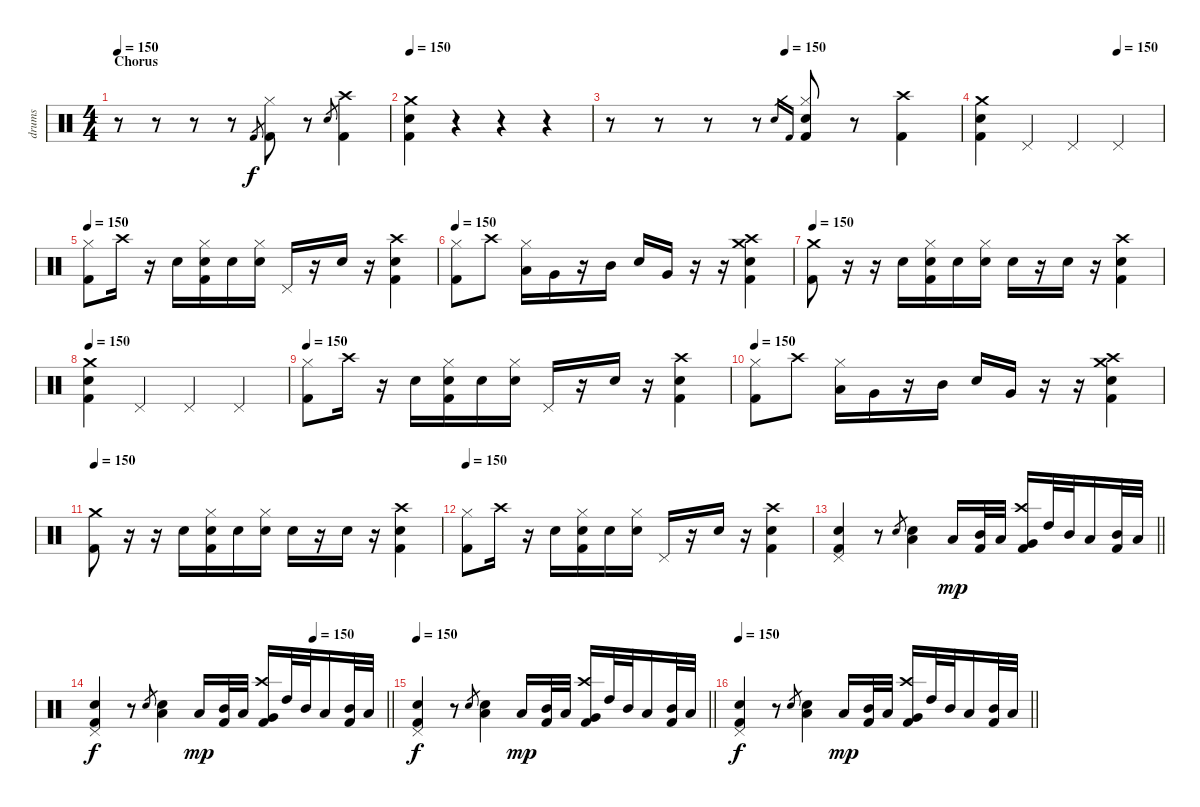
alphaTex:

\track ("drums" "drums") {instrument percussion}
\staff {score}
\articulation defaults
\ts (4 4)
\section ("" "Chorus")
\tempo 150
\clef neutral
\ks c
r.8{dy mp} r.8 r.8 r.8 "Kick (hit) 2".8{gr dy f} ("Hi-Hat (closed)" "Kick (hit) 2").8 r.8 "Snare (hit) 2".8{gr} ("Crash high (hit)" "Kick (hit) 2").4 |
\tempo 150
("Crash medium (hit)" "Snare (hit) 2" "Kick (hit) 2").4 r.4 r.4 r.4 |
\tempo (150 0.5)
r.8 r.8 r.8 r.8 "Snare (hit) 2".16{gr} "Kick (hit) 2".16{gr} ("Hi-Hat (closed)" "Snare (hit) 2" "Kick (hit) 2").8 r.8 ("Crash high (hit)" "Kick (hit) 2").4 |
\tempo (150 0.75)
("Crash medium (hit)" "Snare (hit) 2" "Kick (hit) 2").4 "Pedal Hi-Hat (hit)".4 "Pedal Hi-Hat (hit)".4 "Pedal Hi-Hat (hit)".4 |
\tempo 150
("Hi-Hat (closed)" "Kick (hit) 2").8 "Crash high (hit)".16 r.16 "Snare (hit) 2".16 ("Hi-Hat (closed)" "Snare (hit) 2" "Kick (hit) 2").16 "Snare (hit) 2".16 ("Hi-Hat (closed)" "Snare (hit) 2").16 "Pedal Hi-Hat (hit)".16 r.16 "Snare (hit) 2".16 r.16 ("Crash high (hit)" "Snare (hit) 2" "Kick (hit) 2").4 |
\tempo 150
("Hi-Hat (closed)" "Kick (hit) 2").8 "Crash high (hit)".8 ("Hi-Hat (closed)" "Low Floor Tom (hit)").16 "Very Low Tom (hit)".16 r.16 "Mid Tom (hit)".16 "Snare (hit) 2".16 "Very Low Tom (hit)".16 r.16 r.16 ("Crash high (hit)" "Snare (hit) 2" "Crash medium (hit)" "Kick (hit) 2").4 |
\tempo 150
("Crash medium (hit)" "Kick (hit) 2").8 r.16 r.16 "Snare (hit) 2".16 ("Hi-Hat (closed)" "Snare (hit) 2" "Kick (hit) 2").16 "Snare (hit) 2".16 ("Hi-Hat (closed)" "Snare (hit) 2").16 "Snare (hit) 2".16 r.16 "Snare (hit) 2".16 r.16 ("Crash high (hit)" "Snare (hit) 2" "Kick (hit) 2").4 |
\tempo 150
("Crash medium (hit)" "Snare (hit) 2" "Kick (hit) 2").4 "Pedal Hi-Hat (hit)".4 "Pedal Hi-Hat (hit)".4 "Pedal Hi-Hat (hit)".4 |
\tempo 150
("Hi-Hat (closed)" "Kick (hit) 2").8 "Crash high (hit)".16 r.16 "Snare (hit) 2".16 ("Hi-Hat (closed)" "Snare (hit) 2" "Kick (hit) 2").16 "Snare (hit) 2".16 ("Hi-Hat (closed)" "Snare (hit) 2").16 "Pedal Hi-Hat (hit)".16 r.16 "Snare (hit) 2".16 r.16 ("Crash high (hit)" "Snare (hit) 2" "Kick (hit) 2").4 |
\tempo 150
("Hi-Hat (closed)" "Kick (hit) 2").8 "Crash high (hit)".8 ("Hi-Hat (closed)" "Low Floor Tom (hit)").16 "Very Low Tom (hit)".16 r.16 "Mid Tom (hit)".16 "Snare (hit) 2".16 "Very Low Tom (hit)".16 r.16 r.16 ("Crash high (hit)" "Snare (hit) 2" "Crash medium (hit)" "Kick (hit) 2").4 |
\tempo 150
("Crash medium (hit)" "Kick (hit) 2").8 r.16 r.16 "Snare (hit) 2".16 ("Hi-Hat (closed)" "Snare (hit) 2" "Kick (hit) 2").16 "Snare (hit) 2".16 ("Hi-Hat (closed)" "Snare (hit) 2").16 "Snare (hit) 2".16 r.16 "Snare (hit) 2".16 r.16 ("Crash high (hit)" "Snare (hit) 2" "Kick (hit) 2").4 |
\tempo 150
("Hi-Hat (closed)" "Kick (hit) 2").8 "Crash high (hit)".16 r.16 "Snare (hit) 2".16 ("Hi-Hat (closed)" "Snare (hit) 2" "Kick (hit) 2").16 "Snare (hit) 2".16 ("Hi-Hat (closed)" "Snare (hit) 2").16 "Pedal Hi-Hat (hit)".16 r.16 "Snare (hit) 2".16 r.16 ("Crash high (hit)" "Snare (hit) 2" "Kick (hit) 2").4 |
\barLineRight lightlight
("Pedal Hi-Hat (hit)" "Snare (hit) 2" "Kick (hit) 2").4 r.8 "Snare (hit) 2".8{gr} ("Snare (hit) 2" "Low Tom (hit)").4 "Low Tom (hit)".16{dy mp} ("Mid Tom (hit)" "Kick (hit) 2").32 "Low Tom (hit)".32 ("Crash high (hit)" "Very Low Tom (hit)" "Kick (hit) 2").16 "High Tom (hit)".32 "Mid Tom (hit)".32 "Low Tom (hit)".16 ("Mid Tom (hit)" "Kick (hit) 2").32 "Low Tom (hit)".32 |
\tempo (150 0.75)
\barLineRight lightlight
("Pedal Hi-Hat (hit)" "Snare (hit) 2" "Kick (hit) 2").4{dy f} r.8 "Snare (hit) 2".8{gr} ("Snare (hit) 2" "Low Tom (hit)").4 "Low Tom (hit)".16{dy mp} ("Mid Tom (hit)" "Kick (hit) 2").32 "Low Tom (hit)".32 ("Crash high (hit)" "Very Low Tom (hit)" "Kick (hit) 2").16 "High Tom (hit)".32 "Mid Tom (hit)".32 "Low Tom (hit)".16 ("Mid Tom (hit)" "Kick (hit) 2").32 "Low Tom (hit)".32 |
\tempo 150
\barLineRight lightlight
("Pedal Hi-Hat (hit)" "Snare (hit) 2" "Kick (hit) 2").4{dy f} r.8 "Snare (hit) 2".8{gr} ("Snare (hit) 2" "Low Tom (hit)").4 "Low Tom (hit)".16{dy mp} ("Mid Tom (hit)" "Kick (hit) 2").32 "Low Tom (hit)".32 ("Crash high (hit)" "Very Low Tom (hit)" "Kick (hit) 2").16 "High Tom (hit)".32 "Mid Tom (hit)".32 "Low Tom (hit)".16 ("Mid Tom (hit)" "Kick (hit) 2").32 "Low Tom (hit)".32 |
\tempo 150
\barLineRight lightlight
("Pedal Hi-Hat (hit)" "Snare (hit) 2" "Kick (hit) 2").4{dy f} r.8 "Snare (hit) 2".8{gr} ("Snare (hit) 2" "Low Tom (hit)").4 "Low Tom (hit)".16{dy mp} ("Mid Tom (hit)" "Kick (hit) 2").32 "Low Tom (hit)".32 ("Crash high (hit)" "Very Low Tom (hit)" "Kick (hit) 2").16 "High Tom (hit)".32 "Mid Tom (hit)".32 "Low Tom (hit)".16 ("Mid Tom (hit)" "Kick (hit) 2").32 "Low Tom (hit)".32
